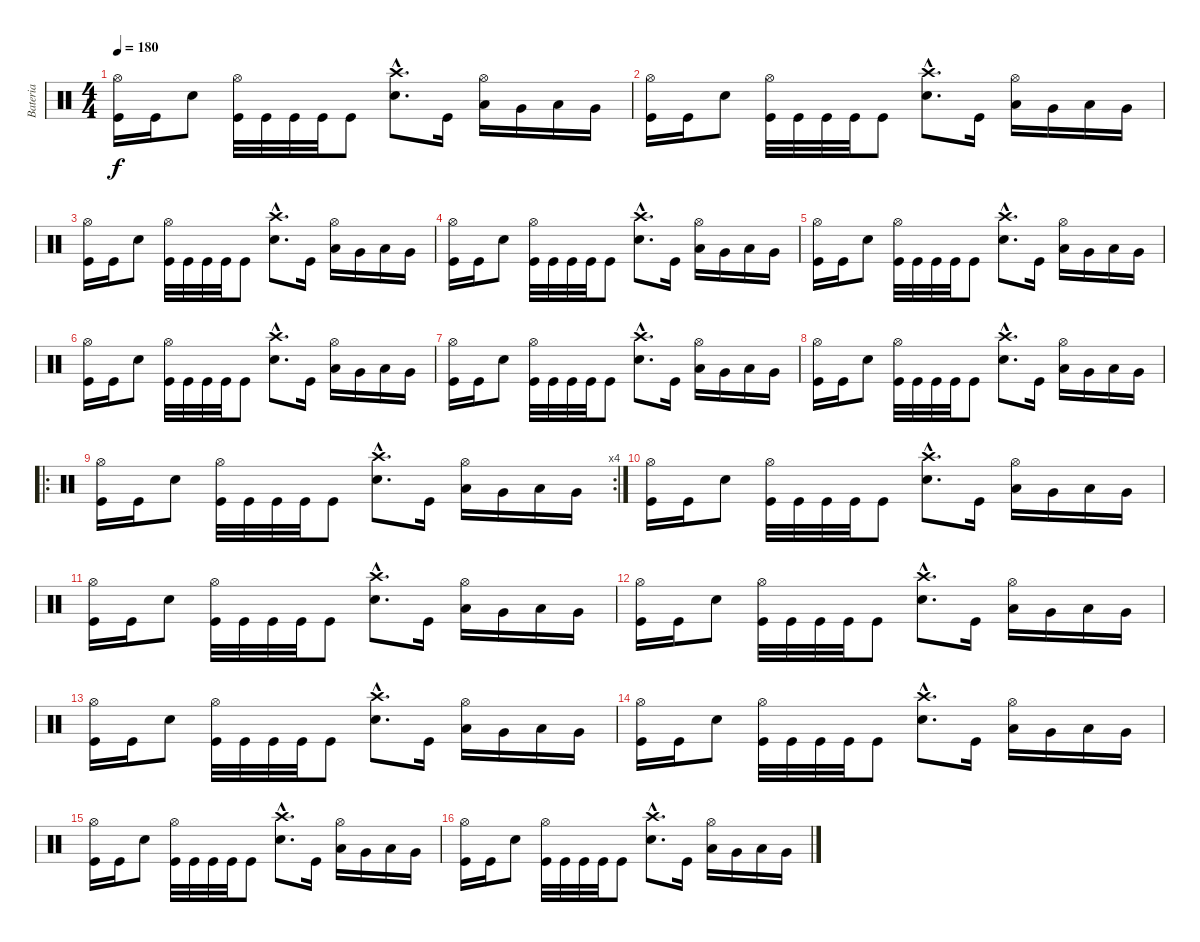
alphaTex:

\track ("Bateria" "Bateria") {instrument percussion}
\staff {score}
\articulation defaults
\ts (4 4)
\tempo 180
\clef neutral
\ks c
("Hi-Hat (open)" "Kick (hit)").16{dy f} "Kick (hit)".16 "Electric Snare (hit)".8 ("Hi-Hat (open)" "Kick (hit)").32 "Kick (hit)".32 "Kick (hit)".32 "Kick (hit)".32 "Kick (hit)".8 ("Crash high (hit)"{hac} "Electric Snare (hit)"{hac}).8{d} "Kick (hit)".16 ("Hi-Hat (open)" "Low Tom (hit)").16 "Very Low Tom (hit)".16 "Low Tom (hit)".16 "Very Low Tom (hit)".16 |
("Hi-Hat (open)" "Kick (hit)").16 "Kick (hit)".16 "Electric Snare (hit)".8 ("Hi-Hat (open)" "Kick (hit)").32 "Kick (hit)".32 "Kick (hit)".32 "Kick (hit)".32 "Kick (hit)".8 ("Crash high (hit)"{hac} "Electric Snare (hit)"{hac}).8{d} "Kick (hit)".16 ("Hi-Hat (open)" "Low Tom (hit)").16 "Very Low Tom (hit)".16 "Low Tom (hit)".16 "Very Low Tom (hit)".16 |
("Hi-Hat (open)" "Kick (hit)").16 "Kick (hit)".16 "Electric Snare (hit)".8 ("Hi-Hat (open)" "Kick (hit)").32 "Kick (hit)".32 "Kick (hit)".32 "Kick (hit)".32 "Kick (hit)".8 ("Crash high (hit)"{hac} "Electric Snare (hit)"{hac}).8{d} "Kick (hit)".16 ("Hi-Hat (open)" "Low Tom (hit)").16 "Very Low Tom (hit)".16 "Low Tom (hit)".16 "Very Low Tom (hit)".16 |
("Hi-Hat (open)" "Kick (hit)").16 "Kick (hit)".16 "Electric Snare (hit)".8 ("Hi-Hat (open)" "Kick (hit)").32 "Kick (hit)".32 "Kick (hit)".32 "Kick (hit)".32 "Kick (hit)".8 ("Crash high (hit)"{hac} "Electric Snare (hit)"{hac}).8{d} "Kick (hit)".16 ("Hi-Hat (open)" "Low Tom (hit)").16 "Very Low Tom (hit)".16 "Low Tom (hit)".16 "Very Low Tom (hit)".16 |
("Hi-Hat (open)" "Kick (hit)").16 "Kick (hit)".16 "Electric Snare (hit)".8 ("Hi-Hat (open)" "Kick (hit)").32 "Kick (hit)".32 "Kick (hit)".32 "Kick (hit)".32 "Kick (hit)".8 ("Crash high (hit)"{hac} "Electric Snare (hit)"{hac}).8{d} "Kick (hit)".16 ("Hi-Hat (open)" "Low Tom (hit)").16 "Very Low Tom (hit)".16 "Low Tom (hit)".16 "Very Low Tom (hit)".16 |
("Hi-Hat (open)" "Kick (hit)").16 "Kick (hit)".16 "Electric Snare (hit)".8 ("Hi-Hat (open)" "Kick (hit)").32 "Kick (hit)".32 "Kick (hit)".32 "Kick (hit)".32 "Kick (hit)".8 ("Crash high (hit)"{hac} "Electric Snare (hit)"{hac}).8{d} "Kick (hit)".16 ("Hi-Hat (open)" "Low Tom (hit)").16 "Very Low Tom (hit)".16 "Low Tom (hit)".16 "Very Low Tom (hit)".16 |
("Hi-Hat (open)" "Kick (hit)").16 "Kick (hit)".16 "Electric Snare (hit)".8 ("Hi-Hat (open)" "Kick (hit)").32 "Kick (hit)".32 "Kick (hit)".32 "Kick (hit)".32 "Kick (hit)".8 ("Crash high (hit)"{hac} "Electric Snare (hit)"{hac}).8{d} "Kick (hit)".16 ("Hi-Hat (open)" "Low Tom (hit)").16 "Very Low Tom (hit)".16 "Low Tom (hit)".16 "Very Low Tom (hit)".16 |
("Hi-Hat (open)" "Kick (hit)").16 "Kick (hit)".16 "Electric Snare (hit)".8 ("Hi-Hat (open)" "Kick (hit)").32 "Kick (hit)".32 "Kick (hit)".32 "Kick (hit)".32 "Kick (hit)".8 ("Crash high (hit)"{hac} "Electric Snare (hit)"{hac}).8{d} "Kick (hit)".16 ("Hi-Hat (open)" "Low Tom (hit)").16 "Very Low Tom (hit)".16 "Low Tom (hit)".16 "Very Low Tom (hit)".16 |
\ro
\rc 4
("Hi-Hat (open)" "Kick (hit)").16 "Kick (hit)".16 "Electric Snare (hit)".8 ("Hi-Hat (open)" "Kick (hit)").32 "Kick (hit)".32 "Kick (hit)".32 "Kick (hit)".32 "Kick (hit)".8 ("Crash high (hit)"{hac} "Electric Snare (hit)"{hac}).8{d} "Kick (hit)".16 ("Hi-Hat (open)" "Low Tom (hit)").16 "Very Low Tom (hit)".16 "Low Tom (hit)".16 "Very Low Tom (hit)".16 |
("Hi-Hat (open)" "Kick (hit)").16 "Kick (hit)".16 "Electric Snare (hit)".8 ("Hi-Hat (open)" "Kick (hit)").32 "Kick (hit)".32 "Kick (hit)".32 "Kick (hit)".32 "Kick (hit)".8 ("Crash high (hit)"{hac} "Electric Snare (hit)"{hac}).8{d} "Kick (hit)".16 ("Hi-Hat (open)" "Low Tom (hit)").16 "Very Low Tom (hit)".16 "Low Tom (hit)".16 "Very Low Tom (hit)".16 |
("Hi-Hat (open)" "Kick (hit)").16 "Kick (hit)".16 "Electric Snare (hit)".8 ("Hi-Hat (open)" "Kick (hit)").32 "Kick (hit)".32 "Kick (hit)".32 "Kick (hit)".32 "Kick (hit)".8 ("Crash high (hit)"{hac} "Electric Snare (hit)"{hac}).8{d} "Kick (hit)".16 ("Hi-Hat (open)" "Low Tom (hit)").16 "Very Low Tom (hit)".16 "Low Tom (hit)".16 "Very Low Tom (hit)".16 |
("Hi-Hat (open)" "Kick (hit)").16 "Kick (hit)".16 "Electric Snare (hit)".8 ("Hi-Hat (open)" "Kick (hit)").32 "Kick (hit)".32 "Kick (hit)".32 "Kick (hit)".32 "Kick (hit)".8 ("Crash high (hit)"{hac} "Electric Snare (hit)"{hac}).8{d} "Kick (hit)".16 ("Hi-Hat (open)" "Low Tom (hit)").16 "Very Low Tom (hit)".16 "Low Tom (hit)".16 "Very Low Tom (hit)".16 |
("Hi-Hat (open)" "Kick (hit)").16 "Kick (hit)".16 "Electric Snare (hit)".8 ("Hi-Hat (open)" "Kick (hit)").32 "Kick (hit)".32 "Kick (hit)".32 "Kick (hit)".32 "Kick (hit)".8 ("Crash high (hit)"{hac} "Electric Snare (hit)"{hac}).8{d} "Kick (hit)".16 ("Hi-Hat (open)" "Low Tom (hit)").16 "Very Low Tom (hit)".16 "Low Tom (hit)".16 "Very Low Tom (hit)".16 |
("Hi-Hat (open)" "Kick (hit)").16 "Kick (hit)".16 "Electric Snare (hit)".8 ("Hi-Hat (open)" "Kick (hit)").32 "Kick (hit)".32 "Kick (hit)".32 "Kick (hit)".32 "Kick (hit)".8 ("Crash high (hit)"{hac} "Electric Snare (hit)"{hac}).8{d} "Kick (hit)".16 ("Hi-Hat (open)" "Low Tom (hit)").16 "Very Low Tom (hit)".16 "Low Tom (hit)".16 "Very Low Tom (hit)".16 |
("Hi-Hat (open)" "Kick (hit)").16 "Kick (hit)".16 "Electric Snare (hit)".8 ("Hi-Hat (open)" "Kick (hit)").32 "Kick (hit)".32 "Kick (hit)".32 "Kick (hit)".32 "Kick (hit)".8 ("Crash high (hit)"{hac} "Electric Snare (hit)"{hac}).8{d} "Kick (hit)".16 ("Hi-Hat (open)" "Low Tom (hit)").16 "Very Low Tom (hit)".16 "Low Tom (hit)".16 "Very Low Tom (hit)".16 |
("Hi-Hat (open)" "Kick (hit)").16 "Kick (hit)".16 "Electric Snare (hit)".8 ("Hi-Hat (open)" "Kick (hit)").32 "Kick (hit)".32 "Kick (hit)".32 "Kick (hit)".32 "Kick (hit)".8 ("Crash high (hit)"{hac} "Electric Snare (hit)"{hac}).8{d} "Kick (hit)".16 ("Hi-Hat (open)" "Low Tom (hit)").16 "Very Low Tom (hit)".16 "Low Tom (hit)".16 "Very Low Tom (hit)".16
